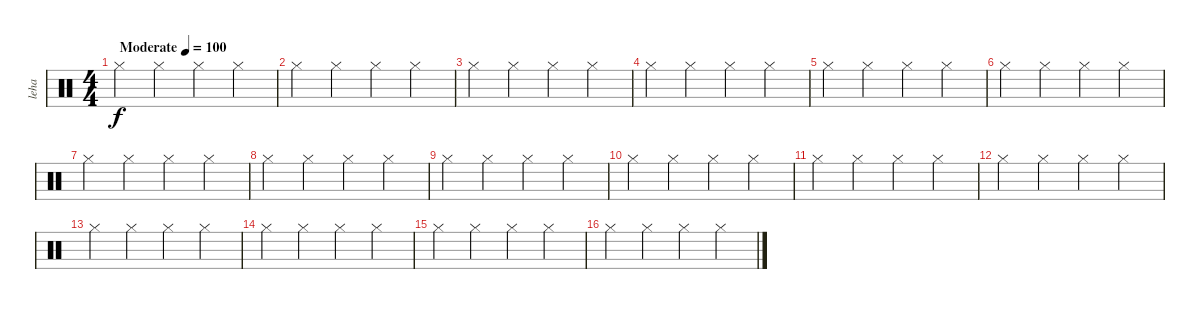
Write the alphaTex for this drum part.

\track ("leha" "leha") {instrument percussion}
\staff {score}
\articulation defaults
\ts (4 4)
\tempo (100 "Moderate")
\clef neutral
\ks c "Hi-Hat (closed)".4{dy f} "Hi-Hat (closed)".4 "Hi-Hat (closed)".4 "Hi-Hat (closed)".4
|
"Hi-Hat (closed)".4 "Hi-Hat (closed)".4 "Hi-Hat (closed)".4 "Hi-Hat (closed)".4 |
"Hi-Hat (closed)".4 "Hi-Hat (closed)".4 "Hi-Hat (closed)".4 "Hi-Hat (closed)".4 |
"Hi-Hat (closed)".4 "Hi-Hat (closed)".4 "Hi-Hat (closed)".4 "Hi-Hat (closed)".4 |
"Hi-Hat (closed)".4 "Hi-Hat (closed)".4 "Hi-Hat (closed)".4 "Hi-Hat (closed)".4 |
"Hi-Hat (closed)".4 "Hi-Hat (closed)".4 "Hi-Hat (closed)".4 "Hi-Hat (closed)".4 |
"Hi-Hat (closed)".4 "Hi-Hat (closed)".4 "Hi-Hat (closed)".4 "Hi-Hat (closed)".4 |
"Hi-Hat (closed)".4 "Hi-Hat (closed)".4 "Hi-Hat (closed)".4 "Hi-Hat (closed)".4 |
"Hi-Hat (closed)".4 "Hi-Hat (closed)".4 "Hi-Hat (closed)".4 "Hi-Hat (closed)".4 |
"Hi-Hat (closed)".4 "Hi-Hat (closed)".4 "Hi-Hat (closed)".4 "Hi-Hat (closed)".4 |
"Hi-Hat (closed)".4 "Hi-Hat (closed)".4 "Hi-Hat (closed)".4 "Hi-Hat (closed)".4 |
"Hi-Hat (closed)".4 "Hi-Hat (closed)".4 "Hi-Hat (closed)".4 "Hi-Hat (closed)".4 |
"Hi-Hat (closed)".4 "Hi-Hat (closed)".4 "Hi-Hat (closed)".4 "Hi-Hat (closed)".4 |
"Hi-Hat (closed)".4 "Hi-Hat (closed)".4 "Hi-Hat (closed)".4 "Hi-Hat (closed)".4 |
"Hi-Hat (closed)".4 "Hi-Hat (closed)".4 "Hi-Hat (closed)".4 "Hi-Hat (closed)".4 |
"Hi-Hat (closed)".4 "Hi-Hat (closed)".4 "Hi-Hat (closed)".4 "Hi-Hat (closed)".4
